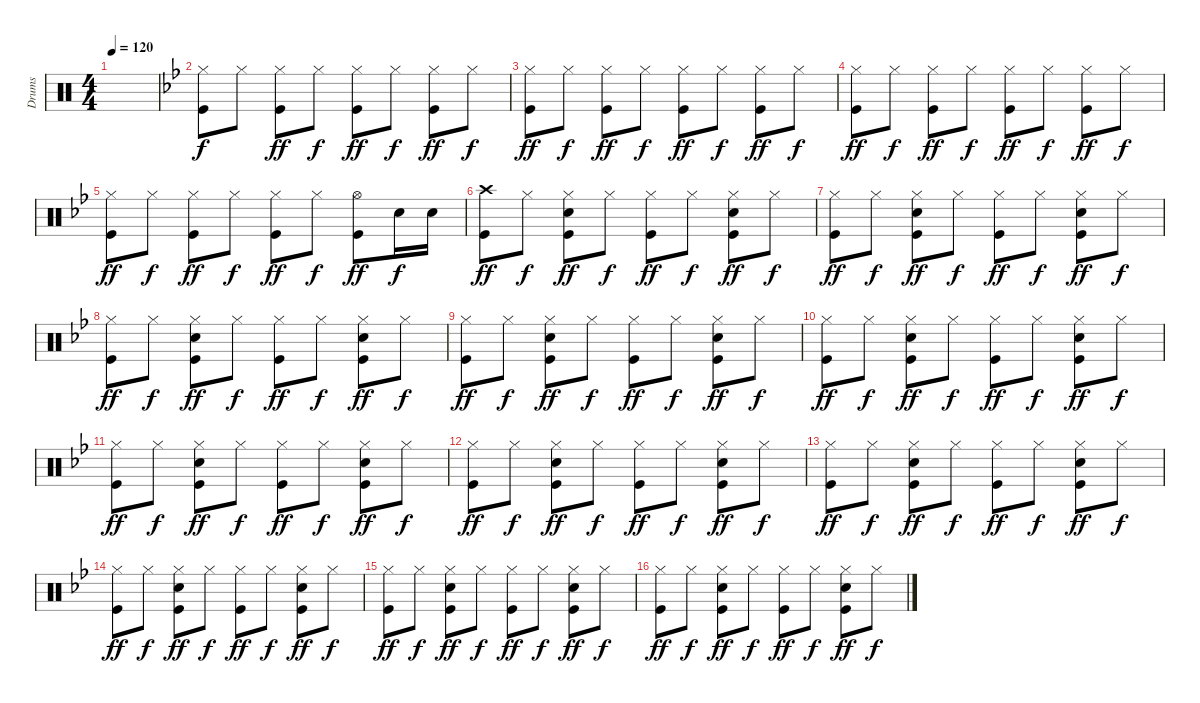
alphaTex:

\track ("Drums" "Drums") {instrument percussion}
\staff {score}
\articulation defaults
\ts (4 4)
\tempo 120
\clef neutral
\ks c
|
\ks bb
("Hi-Hat (closed)" "Kick (hit)").8 "Hi-Hat (closed)".8{dy f} ("Hi-Hat (closed)" "Kick (hit)").8{dy ff} "Hi-Hat (closed)".8{dy f} ("Hi-Hat (closed)" "Kick (hit)").8{dy ff} "Hi-Hat (closed)".8{dy f} ("Hi-Hat (closed)" "Kick (hit)").8{dy ff} "Hi-Hat (closed)".8{dy f} |
("Hi-Hat (closed)" "Kick (hit)").8{dy ff} "Hi-Hat (closed)".8{dy f} ("Hi-Hat (closed)" "Kick (hit)").8{dy ff} "Hi-Hat (closed)".8{dy f} ("Hi-Hat (closed)" "Kick (hit)").8{dy ff} "Hi-Hat (closed)".8{dy f} ("Hi-Hat (closed)" "Kick (hit)").8{dy ff} "Hi-Hat (closed)".8{dy f} |
("Hi-Hat (closed)" "Kick (hit)").8{dy ff} "Hi-Hat (closed)".8{dy f} ("Hi-Hat (closed)" "Kick (hit)").8{dy ff} "Hi-Hat (closed)".8{dy f} ("Hi-Hat (closed)" "Kick (hit)").8{dy ff} "Hi-Hat (closed)".8{dy f} ("Hi-Hat (closed)" "Kick (hit)").8{dy ff} "Hi-Hat (closed)".8{dy f} |
("Hi-Hat (closed)" "Kick (hit)").8{dy ff} "Hi-Hat (closed)".8{dy f} ("Hi-Hat (closed)" "Kick (hit)").8{dy ff} "Hi-Hat (closed)".8{dy f} ("Hi-Hat (closed)" "Kick (hit)").8{dy ff} "Hi-Hat (closed)".8{dy f} ("Hi-Hat (open)" "Kick (hit)").8{dy ff} "Snare (hit) 2".16{dy f} "Snare (hit) 2".16 |
("Crash high (hit)" "Kick (hit)").8{dy ff} "Hi-Hat (closed)".8{dy f} ("Hi-Hat (closed)" "Snare (hit) 2" "Kick (hit)").8{dy ff} "Hi-Hat (closed)".8{dy f} ("Hi-Hat (closed)" "Kick (hit)").8{dy ff} "Hi-Hat (closed)".8{dy f} ("Hi-Hat (closed)" "Snare (hit) 2" "Kick (hit)").8{dy ff} "Hi-Hat (closed)".8{dy f} |
("Hi-Hat (closed)" "Kick (hit)").8{dy ff} "Hi-Hat (closed)".8{dy f} ("Hi-Hat (closed)" "Snare (hit) 2" "Kick (hit)").8{dy ff} "Hi-Hat (closed)".8{dy f} ("Hi-Hat (closed)" "Kick (hit)").8{dy ff} "Hi-Hat (closed)".8{dy f} ("Hi-Hat (closed)" "Snare (hit) 2" "Kick (hit)").8{dy ff} "Hi-Hat (closed)".8{dy f} |
("Hi-Hat (closed)" "Kick (hit)").8{dy ff} "Hi-Hat (closed)".8{dy f} ("Hi-Hat (closed)" "Snare (hit) 2" "Kick (hit)").8{dy ff} "Hi-Hat (closed)".8{dy f} ("Hi-Hat (closed)" "Kick (hit)").8{dy ff} "Hi-Hat (closed)".8{dy f} ("Hi-Hat (closed)" "Snare (hit) 2" "Kick (hit)").8{dy ff} "Hi-Hat (closed)".8{dy f} |
("Hi-Hat (closed)" "Kick (hit)").8{dy ff} "Hi-Hat (closed)".8{dy f} ("Hi-Hat (closed)" "Snare (hit) 2" "Kick (hit)").8{dy ff} "Hi-Hat (closed)".8{dy f} ("Hi-Hat (closed)" "Kick (hit)").8{dy ff} "Hi-Hat (closed)".8{dy f} ("Hi-Hat (closed)" "Snare (hit) 2" "Kick (hit)").8{dy ff} "Hi-Hat (closed)".8{dy f} |
("Hi-Hat (closed)" "Kick (hit)").8{dy ff} "Hi-Hat (closed)".8{dy f} ("Hi-Hat (closed)" "Snare (hit) 2" "Kick (hit)").8{dy ff} "Hi-Hat (closed)".8{dy f} ("Hi-Hat (closed)" "Kick (hit)").8{dy ff} "Hi-Hat (closed)".8{dy f} ("Hi-Hat (closed)" "Snare (hit) 2" "Kick (hit)").8{dy ff} "Hi-Hat (closed)".8{dy f} |
("Hi-Hat (closed)" "Kick (hit)").8{dy ff} "Hi-Hat (closed)".8{dy f} ("Hi-Hat (closed)" "Snare (hit) 2" "Kick (hit)").8{dy ff} "Hi-Hat (closed)".8{dy f} ("Hi-Hat (closed)" "Kick (hit)").8{dy ff} "Hi-Hat (closed)".8{dy f} ("Hi-Hat (closed)" "Snare (hit) 2" "Kick (hit)").8{dy ff} "Hi-Hat (closed)".8{dy f} |
("Hi-Hat (closed)" "Kick (hit)").8{dy ff} "Hi-Hat (closed)".8{dy f} ("Hi-Hat (closed)" "Snare (hit) 2" "Kick (hit)").8{dy ff} "Hi-Hat (closed)".8{dy f} ("Hi-Hat (closed)" "Kick (hit)").8{dy ff} "Hi-Hat (closed)".8{dy f} ("Hi-Hat (closed)" "Snare (hit) 2" "Kick (hit)").8{dy ff} "Hi-Hat (closed)".8{dy f} |
("Hi-Hat (closed)" "Kick (hit)").8{dy ff} "Hi-Hat (closed)".8{dy f} ("Hi-Hat (closed)" "Snare (hit) 2" "Kick (hit)").8{dy ff} "Hi-Hat (closed)".8{dy f} ("Hi-Hat (closed)" "Kick (hit)").8{dy ff} "Hi-Hat (closed)".8{dy f} ("Hi-Hat (closed)" "Snare (hit) 2" "Kick (hit)").8{dy ff} "Hi-Hat (closed)".8{dy f} |
("Hi-Hat (closed)" "Kick (hit)").8{dy ff} "Hi-Hat (closed)".8{dy f} ("Hi-Hat (closed)" "Snare (hit) 2" "Kick (hit)").8{dy ff} "Hi-Hat (closed)".8{dy f} ("Hi-Hat (closed)" "Kick (hit)").8{dy ff} "Hi-Hat (closed)".8{dy f} ("Hi-Hat (closed)" "Snare (hit) 2" "Kick (hit)").8{dy ff} "Hi-Hat (closed)".8{dy f} |
("Hi-Hat (closed)" "Kick (hit)").8{dy ff} "Hi-Hat (closed)".8{dy f} ("Hi-Hat (closed)" "Snare (hit) 2" "Kick (hit)").8{dy ff} "Hi-Hat (closed)".8{dy f} ("Hi-Hat (closed)" "Kick (hit)").8{dy ff} "Hi-Hat (closed)".8{dy f} ("Hi-Hat (closed)" "Snare (hit) 2" "Kick (hit)").8{dy ff} "Hi-Hat (closed)".8{dy f} |
("Hi-Hat (closed)" "Kick (hit)").8{dy ff} "Hi-Hat (closed)".8{dy f} ("Hi-Hat (closed)" "Snare (hit) 2" "Kick (hit)").8{dy ff} "Hi-Hat (closed)".8{dy f} ("Hi-Hat (closed)" "Kick (hit)").8{dy ff} "Hi-Hat (closed)".8{dy f} ("Hi-Hat (closed)" "Snare (hit) 2" "Kick (hit)").8{dy ff} "Hi-Hat (closed)".8{dy f}
